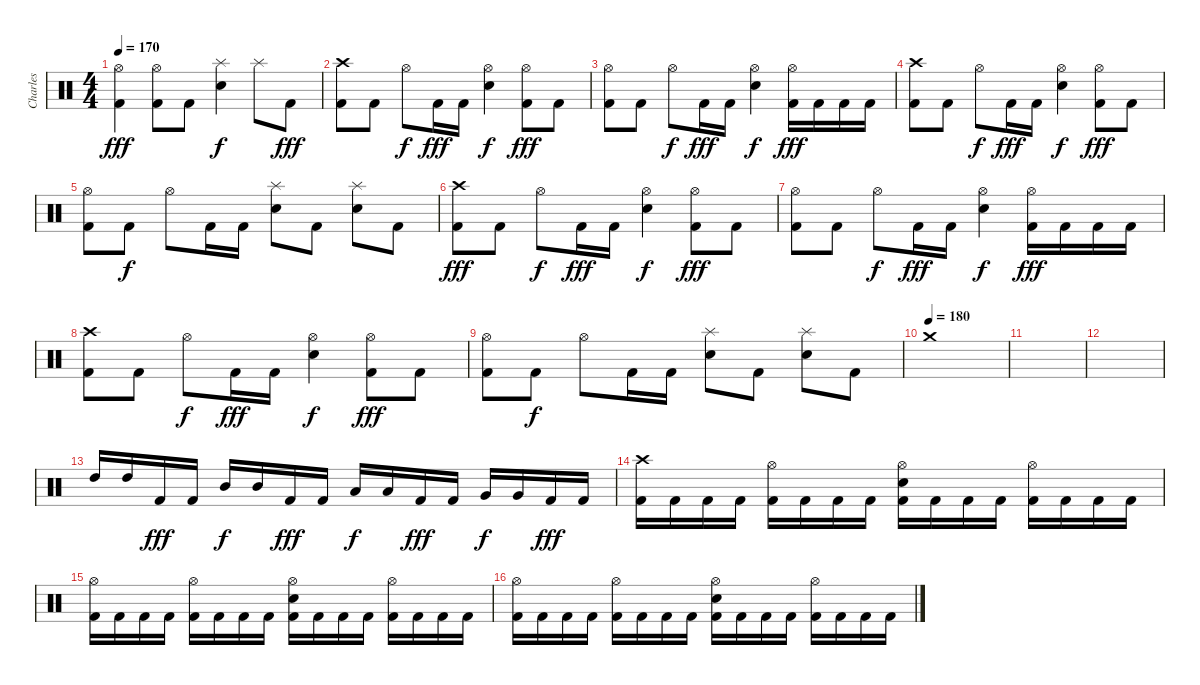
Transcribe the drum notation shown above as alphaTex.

\track ("Charles" "Charles") {instrument percussion}
\staff {score}
\articulation defaults
\ts (4 4)
\tempo 170
\clef neutral
\ks c
("Hi-Hat (open)" "Kick (hit) 2").4{dy fff} ("Hi-Hat (open)" "Kick (hit) 2").8 "Kick (hit) 2".8 ("Splash (hit)" "Electric Snare (hit)").4{dy f} "Splash (hit)".8 "Kick (hit) 2".8{dy fff} |
("Crash high (hit)" "Kick (hit) 2").8 "Kick (hit) 2".8 "Hi-Hat (open)".8{dy f} "Kick (hit) 2".16{dy fff} "Kick (hit) 2".16 ("Hi-Hat (open)" "Electric Snare (hit)").4{dy f} ("Hi-Hat (open)" "Kick (hit) 2").8{dy fff} "Kick (hit) 2".8 |
("Hi-Hat (open)" "Kick (hit) 2").8 "Kick (hit) 2".8 "Hi-Hat (open)".8{dy f} "Kick (hit) 2".16{dy fff} "Kick (hit) 2".16 ("Hi-Hat (open)" "Electric Snare (hit)").4{dy f} ("Hi-Hat (open)" "Kick (hit) 2").16{dy fff} "Kick (hit) 2".16 "Kick (hit) 2".16 "Kick (hit) 2".16 |
("Crash high (hit)" "Kick (hit) 2").8 "Kick (hit) 2".8 "Hi-Hat (open)".8{dy f} "Kick (hit) 2".16{dy fff} "Kick (hit) 2".16 ("Hi-Hat (open)" "Electric Snare (hit)").4{dy f} ("Hi-Hat (open)" "Kick (hit) 2").8{dy fff} "Kick (hit) 2".8 |
("Hi-Hat (open)" "Kick (hit) 2").8 "Kick (hit) 2".8{dy f} "Hi-Hat (open)".8 "Kick (hit) 2".16 "Kick (hit) 2".16 ("Splash (hit)" "Electric Snare (hit)").8 "Kick (hit) 2".8 ("Splash (hit)" "Electric Snare (hit)").8 "Kick (hit) 2".8 |
("Crash high (hit)" "Kick (hit) 2").8{dy fff} "Kick (hit) 2".8 "Hi-Hat (open)".8{dy f} "Kick (hit) 2".16{dy fff} "Kick (hit) 2".16 ("Hi-Hat (open)" "Electric Snare (hit)").4{dy f} ("Hi-Hat (open)" "Kick (hit) 2").8{dy fff} "Kick (hit) 2".8 |
("Hi-Hat (open)" "Kick (hit) 2").8 "Kick (hit) 2".8 "Hi-Hat (open)".8{dy f} "Kick (hit) 2".16{dy fff} "Kick (hit) 2".16 ("Hi-Hat (open)" "Electric Snare (hit)").4{dy f} ("Hi-Hat (open)" "Kick (hit) 2").16{dy fff} "Kick (hit) 2".16 "Kick (hit) 2".16 "Kick (hit) 2".16 |
("Crash high (hit)" "Kick (hit) 2").8 "Kick (hit) 2".8 "Hi-Hat (open)".8{dy f} "Kick (hit) 2".16{dy fff} "Kick (hit) 2".16 ("Hi-Hat (open)" "Electric Snare (hit)").4{dy f} ("Hi-Hat (open)" "Kick (hit) 2").8{dy fff} "Kick (hit) 2".8 |
("Hi-Hat (open)" "Kick (hit) 2").8 "Kick (hit) 2".8{dy f} "Hi-Hat (open)".8 "Kick (hit) 2".16 "Kick (hit) 2".16 ("Splash (hit)" "Electric Snare (hit)").8 "Kick (hit) 2".8 ("Splash (hit)" "Electric Snare (hit)").8 "Kick (hit) 2".8 |
\tempo (180)
"Crash medium (hit)".1 |
|
|
"High Tom (hit)".16 "High Tom (hit)".16 "Kick (hit) 2".16{dy fff} "Kick (hit) 2".16 "Mid Tom (hit)".16{dy f} "Mid Tom (hit)".16 "Kick (hit) 2".16{dy fff} "Kick (hit) 2".16 "Low Tom (hit)".16{dy f} "Low Tom (hit)".16 "Kick (hit) 2".16{dy fff} "Kick (hit) 2".16 "Very Low Tom (hit)".16{dy f} "Very Low Tom (hit)".16 "Kick (hit) 2".16{dy fff} "Kick (hit) 2".16 |
("Crash high (hit)" "Kick (hit) 2").16 "Kick (hit) 2".16 "Kick (hit) 2".16 "Kick (hit) 2".16 ("Hi-Hat (open)" "Kick (hit) 2").16 "Kick (hit) 2".16 "Kick (hit) 2".16 "Kick (hit) 2".16 ("Hi-Hat (open)" "Electric Snare (hit)" "Kick (hit) 2").16 "Kick (hit) 2".16 "Kick (hit) 2".16 "Kick (hit) 2".16 ("Hi-Hat (open)" "Kick (hit) 2").16 "Kick (hit) 2".16 "Kick (hit) 2".16 "Kick (hit) 2".16 |
("Hi-Hat (open)" "Kick (hit) 2").16 "Kick (hit) 2".16 "Kick (hit) 2".16 "Kick (hit) 2".16 ("Hi-Hat (open)" "Kick (hit) 2").16 "Kick (hit) 2".16 "Kick (hit) 2".16 "Kick (hit) 2".16 ("Hi-Hat (open)" "Electric Snare (hit)" "Kick (hit) 2").16 "Kick (hit) 2".16 "Kick (hit) 2".16 "Kick (hit) 2".16 ("Hi-Hat (open)" "Kick (hit) 2").16 "Kick (hit) 2".16 "Kick (hit) 2".16 "Kick (hit) 2".16 |
("Hi-Hat (open)" "Kick (hit) 2").16 "Kick (hit) 2".16 "Kick (hit) 2".16 "Kick (hit) 2".16 ("Hi-Hat (open)" "Kick (hit) 2").16 "Kick (hit) 2".16 "Kick (hit) 2".16 "Kick (hit) 2".16 ("Hi-Hat (open)" "Electric Snare (hit)" "Kick (hit) 2").16 "Kick (hit) 2".16 "Kick (hit) 2".16 "Kick (hit) 2".16 ("Hi-Hat (open)" "Kick (hit) 2").16 "Kick (hit) 2".16 "Kick (hit) 2".16 "Kick (hit) 2".16
